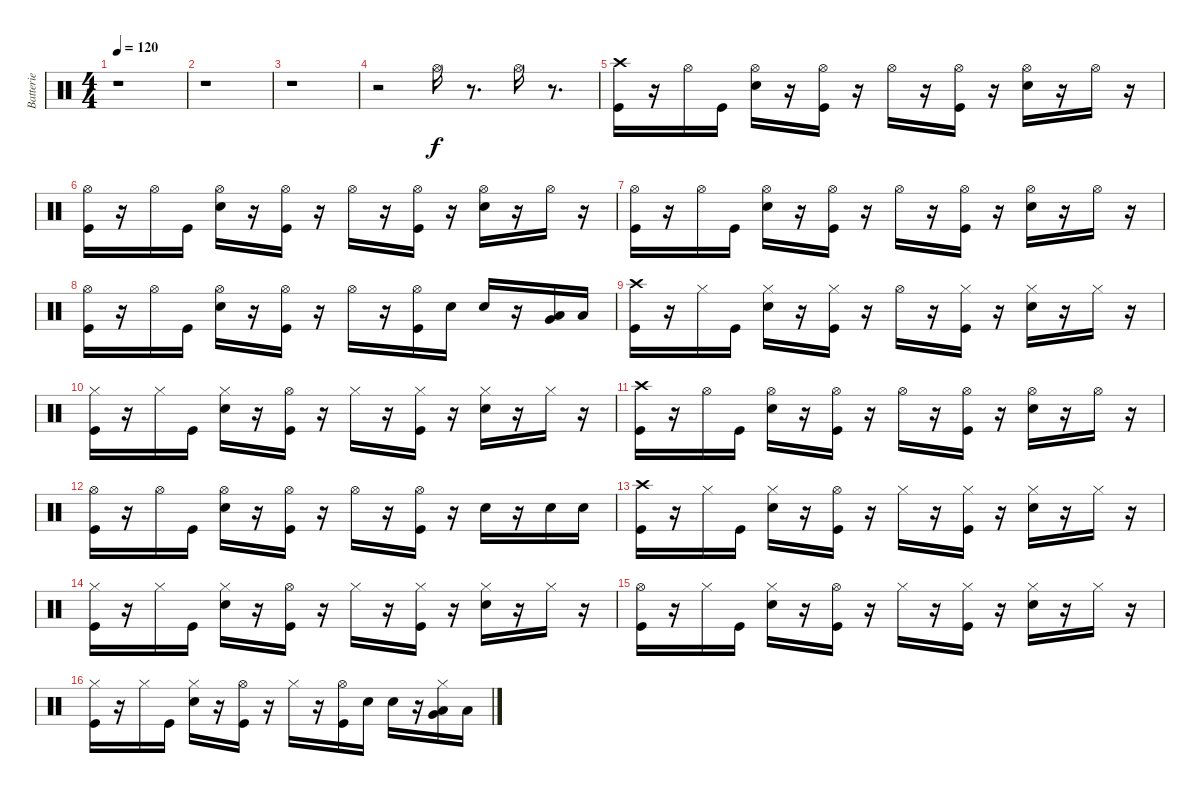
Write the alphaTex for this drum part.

\track ("Batterie" "Batterie") {instrument percussion}
\staff {score}
\articulation defaults
\ts (4 4)
\tempo 120
\clef neutral
\ks c
r.1{dy f} |
r.1 |
r.1 |
r.2 "Hi-Hat (open)".16 r.8{d} "Hi-Hat (open)".16 r.8{d} |
("Crash high (hit)" "Kick (hit)").16 r.16 "Hi-Hat (open)".16 "Kick (hit)".16 ("Electric Snare (hit)" "Hi-Hat (open)").16 r.16 ("Kick (hit)" "Hi-Hat (open)").16 r.16 "Hi-Hat (open)".16 r.16 ("Hi-Hat (open)" "Kick (hit)").16 r.16 ("Hi-Hat (open)" "Electric Snare (hit)").16 r.16 "Hi-Hat (open)".16 r.16 |
("Kick (hit)" "Hi-Hat (open)").16 r.16 "Hi-Hat (open)".16 "Kick (hit)".16 ("Electric Snare (hit)" "Hi-Hat (open)").16 r.16 ("Hi-Hat (open)" "Kick (hit)").16 r.16 "Hi-Hat (open)".16 r.16 ("Hi-Hat (open)" "Kick (hit)").16 r.16 ("Electric Snare (hit)" "Hi-Hat (open)").16 r.16 "Hi-Hat (open)".16 r.16 |
("Hi-Hat (open)" "Kick (hit)").16 r.16 "Hi-Hat (open)".16 "Kick (hit)".16 ("Electric Snare (hit)" "Hi-Hat (open)").16 r.16 ("Hi-Hat (open)" "Kick (hit)").16 r.16 "Hi-Hat (open)".16 r.16 ("Kick (hit)" "Hi-Hat (open)").16 r.16 ("Electric Snare (hit)" "Hi-Hat (open)").16 r.16 "Hi-Hat (open)".16 r.16 |
("Hi-Hat (open)" "Kick (hit)").16 r.16 "Hi-Hat (open)".16 "Kick (hit)".16 ("Electric Snare (hit)" "Hi-Hat (open)").16 r.16 ("Hi-Hat (open)" "Kick (hit)").16 r.16 "Hi-Hat (open)".16 r.16 ("Hi-Hat (open)" "Kick (hit)").16 "Electric Snare (hit)".16 "Electric Snare (hit)".16 r.16 ("Very Low Tom (hit)" "Low Floor Tom (hit)").16 "Low Floor Tom (hit)".16 |
("Kick (hit)" "Crash high (hit)").16 r.16 "Hi-Hat (closed)".16 "Kick (hit)".16 ("Hi-Hat (closed)" "Electric Snare (hit)").16 r.16 ("Hi-Hat (closed)" "Kick (hit)").16 r.16 "Hi-Hat (open)".16 r.16 ("Kick (hit)" "Hi-Hat (closed)").16 r.16 ("Hi-Hat (closed)" "Electric Snare (hit)").16 r.16 "Hi-Hat (closed)".16 r.16 |
("Hi-Hat (closed)" "Kick (hit)").16 r.16 "Hi-Hat (closed)".16 "Kick (hit)".16 ("Hi-Hat (closed)" "Electric Snare (hit)").16 r.16 ("Hi-Hat (open)" "Kick (hit)").16 r.16 "Hi-Hat (closed)".16 r.16 ("Hi-Hat (closed)" "Kick (hit)").16 r.16 ("Hi-Hat (closed)" "Electric Snare (hit)").16 r.16 "Hi-Hat (closed)".16 r.16 |
("Crash high (hit)" "Kick (hit)").16 r.16 "Hi-Hat (open)".16 "Kick (hit)".16 ("Hi-Hat (open)" "Electric Snare (hit)").16 r.16 ("Hi-Hat (open)" "Kick (hit)").16 r.16 "Hi-Hat (open)".16 r.16 ("Hi-Hat (open)" "Kick (hit)").16 r.16 ("Hi-Hat (open)" "Electric Snare (hit)").16 r.16 "Hi-Hat (open)".16 r.16 |
("Hi-Hat (open)" "Kick (hit)").16 r.16 "Hi-Hat (open)".16 "Kick (hit)".16 ("Hi-Hat (open)" "Electric Snare (hit)").16 r.16 ("Hi-Hat (open)" "Kick (hit)").16 r.16 "Hi-Hat (open)".16 r.16 ("Hi-Hat (open)" "Kick (hit)").16 r.16 "Electric Snare (hit)".16 r.16 "Electric Snare (hit)".16 "Electric Snare (hit)".16 |
("Crash high (hit)" "Kick (hit)").16 r.16 "Hi-Hat (closed)".16 "Kick (hit)".16 ("Hi-Hat (closed)" "Electric Snare (hit)").16 r.16 ("Hi-Hat (open)" "Kick (hit)").16 r.16 "Hi-Hat (closed)".16 r.16 ("Kick (hit)" "Hi-Hat (closed)").16 r.16 ("Hi-Hat (closed)" "Electric Snare (hit)").16 r.16 "Hi-Hat (closed)".16 r.16 |
("Hi-Hat (closed)" "Kick (hit)").16 r.16 "Hi-Hat (closed)".16 "Kick (hit)".16 ("Hi-Hat (closed)" "Electric Snare (hit)").16 r.16 ("Kick (hit)" "Hi-Hat (open)").16 r.16 "Hi-Hat (closed)".16 r.16 ("Kick (hit)" "Hi-Hat (closed)").16 r.16 ("Electric Snare (hit)" "Hi-Hat (closed)").16 r.16 "Hi-Hat (closed)".16 r.16 |
("Hi-Hat (open)" "Kick (hit)").16 r.16 "Hi-Hat (closed)".16 "Kick (hit)".16 ("Electric Snare (hit)" "Hi-Hat (closed)").16 r.16 ("Kick (hit)" "Hi-Hat (open)").16 r.16 "Hi-Hat (closed)".16 r.16 ("Hi-Hat (closed)" "Kick (hit)").16 r.16 ("Electric Snare (hit)" "Hi-Hat (closed)").16 r.16 "Hi-Hat (closed)".16 r.16 |
("Hi-Hat (closed)" "Kick (hit)").16 r.16 "Hi-Hat (closed)".16 "Kick (hit)".16 ("Hi-Hat (closed)" "Electric Snare (hit)").16 r.16 ("Kick (hit)" "Hi-Hat (open)").16 r.16 "Hi-Hat (closed)".16 r.16 ("Kick (hit)" "Hi-Hat (open)").16 "Electric Snare (hit)".16 "Electric Snare (hit)".16 r.16 ("Very Low Tom (hit)" "Low Floor Tom (hit)" "Hi-Hat (closed)").16 "Low Floor Tom (hit)".16
